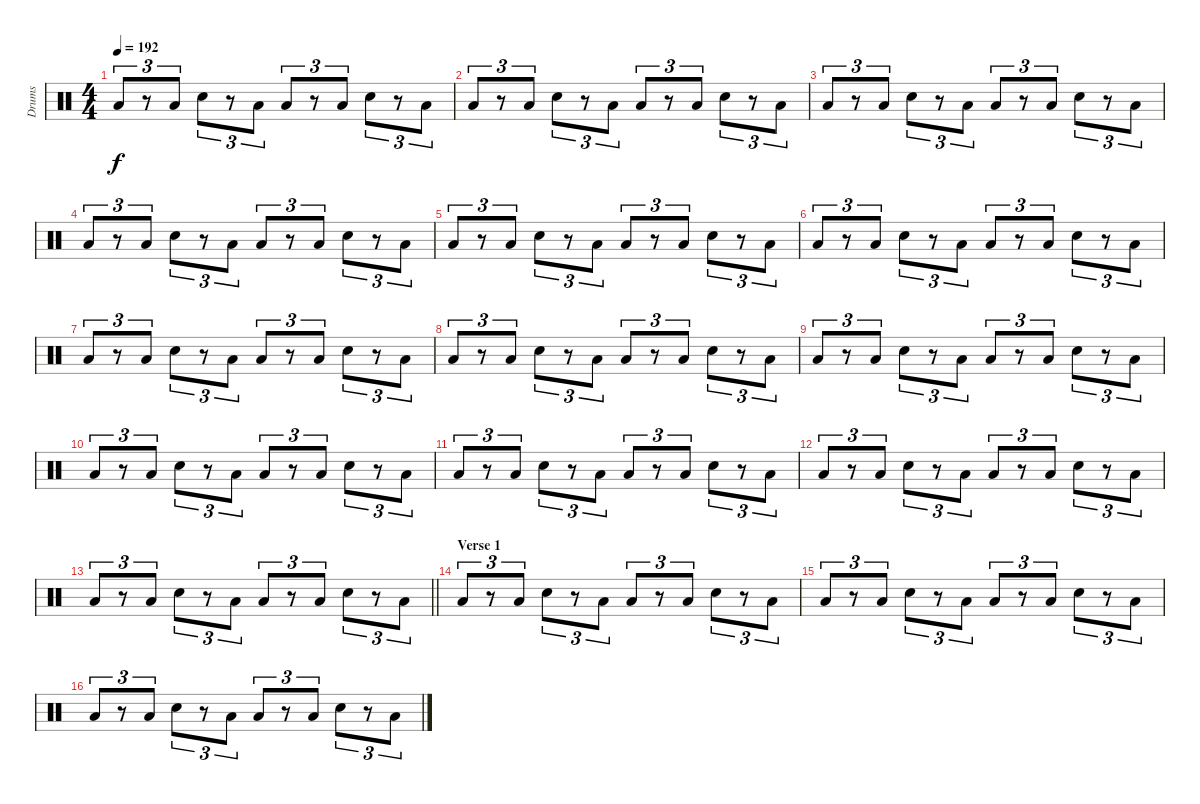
\track ("Drums" "Drums") {instrument percussion}
\staff {score}
\articulation defaults
\ts (4 4)
\tempo 192
\clef neutral
\ks c "Low Floor Tom (hit)".8{tu (3 2) dy f}
r.8{tu (3 2)} "Low Tom (hit)".8{tu (3 2)} "Snare (hit) 2".8{tu (3 2)} r.8{tu (3 2)} "Low Tom (hit)".8{tu (3 2)} "Low Floor Tom (hit)".8{tu (3 2)} r.8{tu (3 2)} "Low Tom (hit)".8{tu (3 2)} "Snare (hit) 2".8{tu (3 2)} r.8{tu (3 2)} "Low Tom (hit)".8{tu (3 2)} |
"Low Floor Tom (hit)".8{tu (3 2)} r.8{tu (3 2)} "Low Tom (hit)".8{tu (3 2)} "Snare (hit) 2".8{tu (3 2)} r.8{tu (3 2)} "Low Tom (hit)".8{tu (3 2)} "Low Floor Tom (hit)".8{tu (3 2)} r.8{tu (3 2)} "Low Tom (hit)".8{tu (3 2)} "Snare (hit) 2".8{tu (3 2)} r.8{tu (3 2)} "Low Tom (hit)".8{tu (3 2)} |
"Low Floor Tom (hit)".8{tu (3 2)} r.8{tu (3 2)} "Low Tom (hit)".8{tu (3 2)} "Snare (hit) 2".8{tu (3 2)} r.8{tu (3 2)} "Low Tom (hit)".8{tu (3 2)} "Low Floor Tom (hit)".8{tu (3 2)} r.8{tu (3 2)} "Low Tom (hit)".8{tu (3 2)} "Snare (hit) 2".8{tu (3 2)} r.8{tu (3 2)} "Low Tom (hit)".8{tu (3 2)} |
"Low Floor Tom (hit)".8{tu (3 2)} r.8{tu (3 2)} "Low Tom (hit)".8{tu (3 2)} "Snare (hit) 2".8{tu (3 2)} r.8{tu (3 2)} "Low Tom (hit)".8{tu (3 2)} "Low Floor Tom (hit)".8{tu (3 2)} r.8{tu (3 2)} "Low Tom (hit)".8{tu (3 2)} "Snare (hit) 2".8{tu (3 2)} r.8{tu (3 2)} "Low Tom (hit)".8{tu (3 2)} |
"Low Floor Tom (hit)".8{tu (3 2)} r.8{tu (3 2)} "Low Tom (hit)".8{tu (3 2)} "Snare (hit) 2".8{tu (3 2)} r.8{tu (3 2)} "Low Tom (hit)".8{tu (3 2)} "Low Floor Tom (hit)".8{tu (3 2)} r.8{tu (3 2)} "Low Tom (hit)".8{tu (3 2)} "Snare (hit) 2".8{tu (3 2)} r.8{tu (3 2)} "Low Tom (hit)".8{tu (3 2)} |
"Low Floor Tom (hit)".8{tu (3 2)} r.8{tu (3 2)} "Low Tom (hit)".8{tu (3 2)} "Snare (hit) 2".8{tu (3 2)} r.8{tu (3 2)} "Low Tom (hit)".8{tu (3 2)} "Low Floor Tom (hit)".8{tu (3 2)} r.8{tu (3 2)} "Low Tom (hit)".8{tu (3 2)} "Snare (hit) 2".8{tu (3 2)} r.8{tu (3 2)} "Low Tom (hit)".8{tu (3 2)} |
"Low Floor Tom (hit)".8{tu (3 2)} r.8{tu (3 2)} "Low Tom (hit)".8{tu (3 2)} "Snare (hit) 2".8{tu (3 2)} r.8{tu (3 2)} "Low Tom (hit)".8{tu (3 2)} "Low Floor Tom (hit)".8{tu (3 2)} r.8{tu (3 2)} "Low Tom (hit)".8{tu (3 2)} "Snare (hit) 2".8{tu (3 2)} r.8{tu (3 2)} "Low Tom (hit)".8{tu (3 2)} |
"Low Floor Tom (hit)".8{tu (3 2)} r.8{tu (3 2)} "Low Tom (hit)".8{tu (3 2)} "Snare (hit) 2".8{tu (3 2)} r.8{tu (3 2)} "Low Tom (hit)".8{tu (3 2)} "Low Floor Tom (hit)".8{tu (3 2)} r.8{tu (3 2)} "Low Tom (hit)".8{tu (3 2)} "Snare (hit) 2".8{tu (3 2)} r.8{tu (3 2)} "Low Tom (hit)".8{tu (3 2)} |
"Low Floor Tom (hit)".8{tu (3 2)} r.8{tu (3 2)} "Low Tom (hit)".8{tu (3 2)} "Snare (hit) 2".8{tu (3 2)} r.8{tu (3 2)} "Low Tom (hit)".8{tu (3 2)} "Low Floor Tom (hit)".8{tu (3 2)} r.8{tu (3 2)} "Low Tom (hit)".8{tu (3 2)} "Snare (hit) 2".8{tu (3 2)} r.8{tu (3 2)} "Low Tom (hit)".8{tu (3 2)} |
"Low Floor Tom (hit)".8{tu (3 2)} r.8{tu (3 2)} "Low Tom (hit)".8{tu (3 2)} "Snare (hit) 2".8{tu (3 2)} r.8{tu (3 2)} "Low Tom (hit)".8{tu (3 2)} "Low Floor Tom (hit)".8{tu (3 2)} r.8{tu (3 2)} "Low Tom (hit)".8{tu (3 2)} "Snare (hit) 2".8{tu (3 2)} r.8{tu (3 2)} "Low Tom (hit)".8{tu (3 2)} |
"Low Floor Tom (hit)".8{tu (3 2)} r.8{tu (3 2)} "Low Tom (hit)".8{tu (3 2)} "Snare (hit) 2".8{tu (3 2)} r.8{tu (3 2)} "Low Tom (hit)".8{tu (3 2)} "Low Floor Tom (hit)".8{tu (3 2)} r.8{tu (3 2)} "Low Tom (hit)".8{tu (3 2)} "Snare (hit) 2".8{tu (3 2)} r.8{tu (3 2)} "Low Tom (hit)".8{tu (3 2)} |
"Low Floor Tom (hit)".8{tu (3 2)} r.8{tu (3 2)} "Low Tom (hit)".8{tu (3 2)} "Snare (hit) 2".8{tu (3 2)} r.8{tu (3 2)} "Low Tom (hit)".8{tu (3 2)} "Low Floor Tom (hit)".8{tu (3 2)} r.8{tu (3 2)} "Low Tom (hit)".8{tu (3 2)} "Snare (hit) 2".8{tu (3 2)} r.8{tu (3 2)} "Low Tom (hit)".8{tu (3 2)} |
\barLineRight lightlight "Low Floor Tom (hit)".8{tu (3 2)}
r.8{tu (3 2)} "Low Tom (hit)".8{tu (3 2)} "Snare (hit) 2".8{tu (3 2)} r.8{tu (3 2)} "Low Tom (hit)".8{tu (3 2)} "Low Floor Tom (hit)".8{tu (3 2)} r.8{tu (3 2)} "Low Tom (hit)".8{tu (3 2)} "Snare (hit) 2".8{tu (3 2)} r.8{tu (3 2)} "Low Tom (hit)".8{tu (3 2)} |
\section ("" "Verse 1")
"Low Floor Tom (hit)".8{tu (3 2)} r.8{tu (3 2)} "Low Tom (hit)".8{tu (3 2)} "Snare (hit) 2".8{tu (3 2)} r.8{tu (3 2)} "Low Tom (hit)".8{tu (3 2)} "Low Floor Tom (hit)".8{tu (3 2)} r.8{tu (3 2)} "Low Tom (hit)".8{tu (3 2)} "Snare (hit) 2".8{tu (3 2)} r.8{tu (3 2)} "Low Tom (hit)".8{tu (3 2)} |
"Low Floor Tom (hit)".8{tu (3 2)} r.8{tu (3 2)} "Low Tom (hit)".8{tu (3 2)} "Snare (hit) 2".8{tu (3 2)} r.8{tu (3 2)} "Low Tom (hit)".8{tu (3 2)} "Low Floor Tom (hit)".8{tu (3 2)} r.8{tu (3 2)} "Low Tom (hit)".8{tu (3 2)} "Snare (hit) 2".8{tu (3 2)} r.8{tu (3 2)} "Low Tom (hit)".8{tu (3 2)} |
"Low Floor Tom (hit)".8{tu (3 2)} r.8{tu (3 2)} "Low Tom (hit)".8{tu (3 2)} "Snare (hit) 2".8{tu (3 2)} r.8{tu (3 2)} "Low Tom (hit)".8{tu (3 2)} "Low Floor Tom (hit)".8{tu (3 2)} r.8{tu (3 2)} "Low Tom (hit)".8{tu (3 2)} "Snare (hit) 2".8{tu (3 2)} r.8{tu (3 2)} "Low Tom (hit)".8{tu (3 2)}
